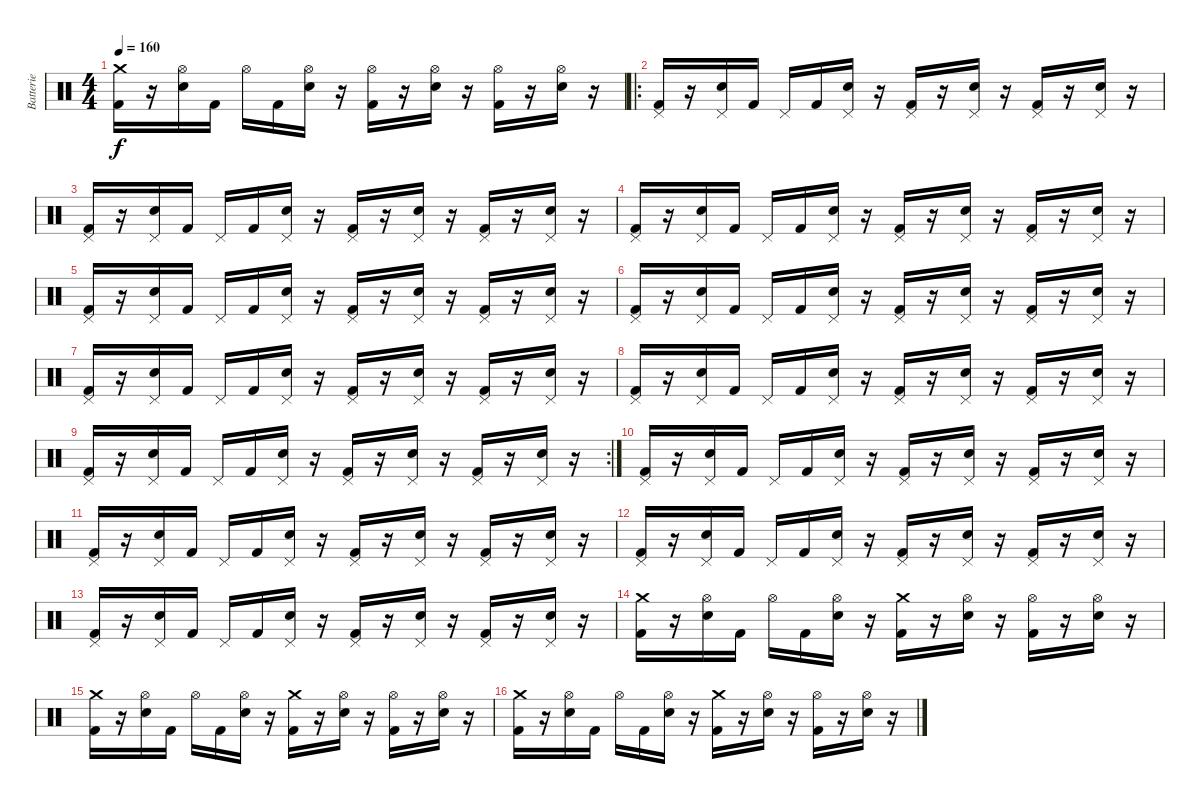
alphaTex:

\track ("Batterie" "Batterie") {instrument percussion}
\staff {score}
\articulation defaults
\ts (4 4)
\tempo 160
\clef neutral
\ks c
("Crash medium (hit)" "Kick (hit) 2").16{dy f} r.16 ("Hi-Hat (open)" "Electric Snare (hit)").16 "Kick (hit) 2".16 "Hi-Hat (open)".16 "Kick (hit) 2".16 ("Hi-Hat (open)" "Electric Snare (hit)").16 r.16 ("Hi-Hat (open)" "Kick (hit) 2").16 r.16 ("Hi-Hat (open)" "Electric Snare (hit)").16 r.16 ("Hi-Hat (open)" "Kick (hit) 2").16 r.16 ("Hi-Hat (open)" "Electric Snare (hit)").16 r.16 |
\ro
("Pedal Hi-Hat (hit)" "Kick (hit) 2").16 r.16 ("Pedal Hi-Hat (hit)" "Electric Snare (hit)").16 "Kick (hit) 2".16 "Pedal Hi-Hat (hit)".16 "Kick (hit) 2".16 ("Pedal Hi-Hat (hit)" "Electric Snare (hit)").16 r.16 ("Pedal Hi-Hat (hit)" "Kick (hit) 2").16 r.16 ("Pedal Hi-Hat (hit)" "Electric Snare (hit)").16 r.16 ("Pedal Hi-Hat (hit)" "Kick (hit) 2").16 r.16 ("Pedal Hi-Hat (hit)" "Electric Snare (hit)").16 r.16 |
("Pedal Hi-Hat (hit)" "Kick (hit) 2").16 r.16 ("Pedal Hi-Hat (hit)" "Electric Snare (hit)").16 "Kick (hit) 2".16 "Pedal Hi-Hat (hit)".16 "Kick (hit) 2".16 ("Pedal Hi-Hat (hit)" "Electric Snare (hit)").16 r.16 ("Pedal Hi-Hat (hit)" "Kick (hit) 2").16 r.16 ("Pedal Hi-Hat (hit)" "Electric Snare (hit)").16 r.16 ("Pedal Hi-Hat (hit)" "Kick (hit) 2").16 r.16 ("Pedal Hi-Hat (hit)" "Electric Snare (hit)").16 r.16 |
("Pedal Hi-Hat (hit)" "Kick (hit) 2").16 r.16 ("Pedal Hi-Hat (hit)" "Electric Snare (hit)").16 "Kick (hit) 2".16 "Pedal Hi-Hat (hit)".16 "Kick (hit) 2".16 ("Pedal Hi-Hat (hit)" "Electric Snare (hit)").16 r.16 ("Pedal Hi-Hat (hit)" "Kick (hit) 2").16 r.16 ("Pedal Hi-Hat (hit)" "Electric Snare (hit)").16 r.16 ("Pedal Hi-Hat (hit)" "Kick (hit) 2").16 r.16 ("Pedal Hi-Hat (hit)" "Electric Snare (hit)").16 r.16 |
("Pedal Hi-Hat (hit)" "Kick (hit) 2").16 r.16 ("Pedal Hi-Hat (hit)" "Electric Snare (hit)").16 "Kick (hit) 2".16 "Pedal Hi-Hat (hit)".16 "Kick (hit) 2".16 ("Pedal Hi-Hat (hit)" "Electric Snare (hit)").16 r.16 ("Pedal Hi-Hat (hit)" "Kick (hit) 2").16 r.16 ("Pedal Hi-Hat (hit)" "Electric Snare (hit)").16 r.16 ("Pedal Hi-Hat (hit)" "Kick (hit) 2").16 r.16 ("Pedal Hi-Hat (hit)" "Electric Snare (hit)").16 r.16 |
("Pedal Hi-Hat (hit)" "Kick (hit) 2").16 r.16 ("Pedal Hi-Hat (hit)" "Electric Snare (hit)").16 "Kick (hit) 2".16 "Pedal Hi-Hat (hit)".16 "Kick (hit) 2".16 ("Pedal Hi-Hat (hit)" "Electric Snare (hit)").16 r.16 ("Pedal Hi-Hat (hit)" "Kick (hit) 2").16 r.16 ("Pedal Hi-Hat (hit)" "Electric Snare (hit)").16 r.16 ("Pedal Hi-Hat (hit)" "Kick (hit) 2").16 r.16 ("Pedal Hi-Hat (hit)" "Electric Snare (hit)").16 r.16 |
("Pedal Hi-Hat (hit)" "Kick (hit) 2").16 r.16 ("Pedal Hi-Hat (hit)" "Electric Snare (hit)").16 "Kick (hit) 2".16 "Pedal Hi-Hat (hit)".16 "Kick (hit) 2".16 ("Pedal Hi-Hat (hit)" "Electric Snare (hit)").16 r.16 ("Pedal Hi-Hat (hit)" "Kick (hit) 2").16 r.16 ("Pedal Hi-Hat (hit)" "Electric Snare (hit)").16 r.16 ("Pedal Hi-Hat (hit)" "Kick (hit) 2").16 r.16 ("Pedal Hi-Hat (hit)" "Electric Snare (hit)").16 r.16 |
("Pedal Hi-Hat (hit)" "Kick (hit) 2").16 r.16 ("Pedal Hi-Hat (hit)" "Electric Snare (hit)").16 "Kick (hit) 2".16 "Pedal Hi-Hat (hit)".16 "Kick (hit) 2".16 ("Pedal Hi-Hat (hit)" "Electric Snare (hit)").16 r.16 ("Pedal Hi-Hat (hit)" "Kick (hit) 2").16 r.16 ("Pedal Hi-Hat (hit)" "Electric Snare (hit)").16 r.16 ("Pedal Hi-Hat (hit)" "Kick (hit) 2").16 r.16 ("Pedal Hi-Hat (hit)" "Electric Snare (hit)").16 r.16 |
\rc 2
("Pedal Hi-Hat (hit)" "Kick (hit) 2").16 r.16 ("Pedal Hi-Hat (hit)" "Electric Snare (hit)").16 "Kick (hit) 2".16 "Pedal Hi-Hat (hit)".16 "Kick (hit) 2".16 ("Pedal Hi-Hat (hit)" "Electric Snare (hit)").16 r.16 ("Pedal Hi-Hat (hit)" "Kick (hit) 2").16 r.16 ("Pedal Hi-Hat (hit)" "Electric Snare (hit)").16 r.16 ("Pedal Hi-Hat (hit)" "Kick (hit) 2").16 r.16 ("Pedal Hi-Hat (hit)" "Electric Snare (hit)").16 r.16 |
("Pedal Hi-Hat (hit)" "Kick (hit) 2").16 r.16 ("Pedal Hi-Hat (hit)" "Electric Snare (hit)").16 "Kick (hit) 2".16 "Pedal Hi-Hat (hit)".16 "Kick (hit) 2".16 ("Pedal Hi-Hat (hit)" "Electric Snare (hit)").16 r.16 ("Pedal Hi-Hat (hit)" "Kick (hit) 2").16 r.16 ("Pedal Hi-Hat (hit)" "Electric Snare (hit)").16 r.16 ("Pedal Hi-Hat (hit)" "Kick (hit) 2").16 r.16 ("Pedal Hi-Hat (hit)" "Electric Snare (hit)").16 r.16 |
("Pedal Hi-Hat (hit)" "Kick (hit) 2").16 r.16 ("Pedal Hi-Hat (hit)" "Electric Snare (hit)").16 "Kick (hit) 2".16 "Pedal Hi-Hat (hit)".16 "Kick (hit) 2".16 ("Pedal Hi-Hat (hit)" "Electric Snare (hit)").16 r.16 ("Pedal Hi-Hat (hit)" "Kick (hit) 2").16 r.16 ("Pedal Hi-Hat (hit)" "Electric Snare (hit)").16 r.16 ("Pedal Hi-Hat (hit)" "Kick (hit) 2").16 r.16 ("Pedal Hi-Hat (hit)" "Electric Snare (hit)").16 r.16 |
("Pedal Hi-Hat (hit)" "Kick (hit) 2").16 r.16 ("Pedal Hi-Hat (hit)" "Electric Snare (hit)").16 "Kick (hit) 2".16 "Pedal Hi-Hat (hit)".16 "Kick (hit) 2".16 ("Pedal Hi-Hat (hit)" "Electric Snare (hit)").16 r.16 ("Pedal Hi-Hat (hit)" "Kick (hit) 2").16 r.16 ("Pedal Hi-Hat (hit)" "Electric Snare (hit)").16 r.16 ("Pedal Hi-Hat (hit)" "Kick (hit) 2").16 r.16 ("Pedal Hi-Hat (hit)" "Electric Snare (hit)").16 r.16 |
("Pedal Hi-Hat (hit)" "Kick (hit) 2").16 r.16 ("Pedal Hi-Hat (hit)" "Electric Snare (hit)").16 "Kick (hit) 2".16 "Pedal Hi-Hat (hit)".16 "Kick (hit) 2".16 ("Pedal Hi-Hat (hit)" "Electric Snare (hit)").16 r.16 ("Pedal Hi-Hat (hit)" "Kick (hit) 2").16 r.16 ("Pedal Hi-Hat (hit)" "Electric Snare (hit)").16 r.16 ("Pedal Hi-Hat (hit)" "Kick (hit) 2").16 r.16 ("Pedal Hi-Hat (hit)" "Electric Snare (hit)").16 r.16 |
("Crash medium (hit)" "Kick (hit) 2").16 r.16 ("Hi-Hat (open)" "Electric Snare (hit)").16 "Kick (hit) 2".16 "Hi-Hat (open)".16 "Kick (hit) 2".16 ("Hi-Hat (open)" "Electric Snare (hit)").16 r.16 ("Crash medium (hit)" "Kick (hit) 2").16 r.16 ("Hi-Hat (open)" "Electric Snare (hit)").16 r.16 ("Hi-Hat (open)" "Kick (hit) 2").16 r.16 ("Hi-Hat (open)" "Electric Snare (hit)").16 r.16 |
("Crash medium (hit)" "Kick (hit) 2").16 r.16 ("Hi-Hat (open)" "Electric Snare (hit)").16 "Kick (hit) 2".16 "Hi-Hat (open)".16 "Kick (hit) 2".16 ("Hi-Hat (open)" "Electric Snare (hit)").16 r.16 ("Crash medium (hit)" "Kick (hit) 2").16 r.16 ("Hi-Hat (open)" "Electric Snare (hit)").16 r.16 ("Hi-Hat (open)" "Kick (hit) 2").16 r.16 ("Hi-Hat (open)" "Electric Snare (hit)").16 r.16 |
("Crash medium (hit)" "Kick (hit) 2").16 r.16 ("Hi-Hat (open)" "Electric Snare (hit)").16 "Kick (hit) 2".16 "Hi-Hat (open)".16 "Kick (hit) 2".16 ("Hi-Hat (open)" "Electric Snare (hit)").16 r.16 ("Crash medium (hit)" "Kick (hit) 2").16 r.16 ("Hi-Hat (open)" "Electric Snare (hit)").16 r.16 ("Hi-Hat (open)" "Kick (hit) 2").16 r.16 ("Hi-Hat (open)" "Electric Snare (hit)").16 r.16
